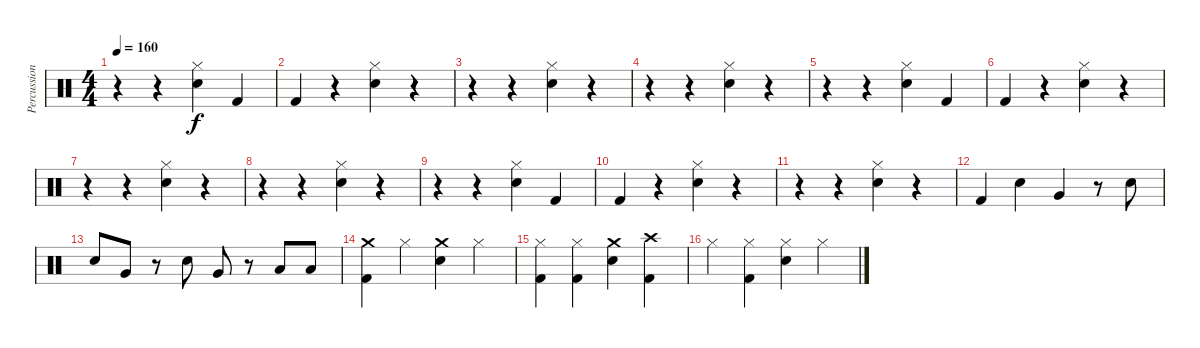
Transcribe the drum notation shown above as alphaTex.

\track ("Percussion" "Percussion") {instrument percussion}
\staff {score}
\articulation defaults
\ts (4 4)
\tempo 160
\clef neutral
\ks c
r.4{dy f} r.4 ("Hi-Hat (closed)" "Snare (hit) 2").4 "Kick (hit) 2".4 |
"Kick (hit) 2".4 r.4 ("Hi-Hat (closed)" "Snare (hit) 2").4 r.4 |
r.4 r.4 ("Hi-Hat (closed)" "Snare (hit) 2").4 r.4 |
r.4 r.4 ("Hi-Hat (closed)" "Snare (hit) 2").4 r.4 |
r.4 r.4 ("Hi-Hat (closed)" "Snare (hit) 2").4 "Kick (hit) 2".4 |
"Kick (hit) 2".4 r.4 ("Hi-Hat (closed)" "Snare (hit) 2").4 r.4 |
r.4 r.4 ("Hi-Hat (closed)" "Snare (hit) 2").4 r.4 |
r.4 r.4 ("Hi-Hat (closed)" "Snare (hit) 2").4 r.4 |
r.4 r.4 ("Hi-Hat (closed)" "Snare (hit) 2").4 "Kick (hit) 2".4 |
"Kick (hit) 2".4 r.4 ("Hi-Hat (closed)" "Snare (hit) 2").4 r.4 |
r.4 r.4 ("Hi-Hat (closed)" "Snare (hit) 2").4 r.4 |
"Kick (hit) 2".4 "Snare (hit) 2".4 "Very Low Tom (hit)".4 r.8 "Snare (hit) 2".8 |
"Snare (hit) 2".8 "Very Low Tom (hit)".8 r.8 "Snare (hit) 2".8 "Very Low Tom (hit)".8 r.8 "Low Floor Tom (hit)".8 "Low Floor Tom (hit)".8 |
("Crash medium (hit)" "Kick (hit) 2").4 "Hi-Hat (closed)".4 ("Crash medium (hit)" "Snare (hit) 2").4 "Hi-Hat (closed)".4 |
("Hi-Hat (closed)" "Kick (hit) 2").4 ("Hi-Hat (closed)" "Kick (hit) 2").4 ("Crash medium (hit)" "Snare (hit) 2").4 ("Crash high (hit)" "Kick (hit) 2").4 |
"Hi-Hat (closed)".4 ("Hi-Hat (closed)" "Kick (hit) 2").4 ("Hi-Hat (closed)" "Snare (hit) 2").4 "Hi-Hat (closed)".4
